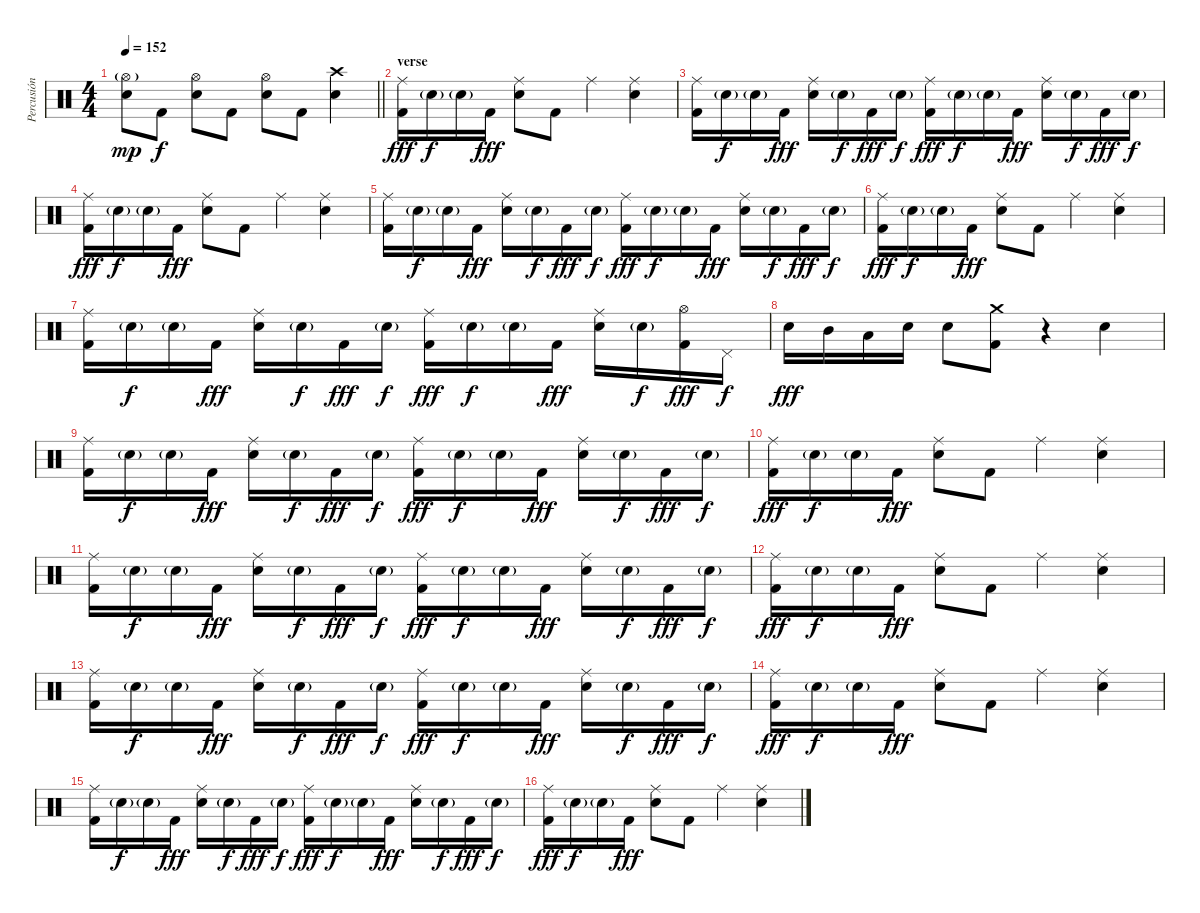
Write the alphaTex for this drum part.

\track ("Percusión" "Percusión") {instrument percussion}
\staff {score}
\articulation defaults
\ts (4 4)
\tempo 152
\clef neutral
\barLineRight lightlight
\ks c
("Hi-Hat (open)"{g} "Snare (hit) 2").8{dy mp} "Kick (hit) 2".8{dy f} ("Hi-Hat (open)" "Snare (hit) 2").8 "Kick (hit) 2".8 ("Hi-Hat (open)" "Snare (hit) 2").8 "Kick (hit) 2".8 ("Crash high (hit)" "Snare (hit) 2").4 |
\section ("" "verse")
("Ride (middle)" "Kick (hit) 2").16{dy fff} "Snare (hit) 2"{g}.16{dy f} "Snare (hit) 2"{g}.16 "Kick (hit) 2".16{dy fff} ("Ride (middle)" "Snare (hit) 2").8 "Kick (hit) 2".8 "Ride (middle)".4 ("Ride (middle)" "Snare (hit) 2").4 |
("Ride (middle)" "Kick (hit) 2").16 "Snare (hit) 2"{g}.16{dy f} "Snare (hit) 2"{g}.16 "Kick (hit) 2".16{dy fff} ("Ride (middle)" "Snare (hit) 2").16 "Snare (hit) 2"{g}.16{dy f} "Kick (hit) 2".16{dy fff} "Snare (hit) 2"{g}.16{dy f} ("Ride (middle)" "Kick (hit) 2").16{dy fff} "Snare (hit) 2"{g}.16{dy f} "Snare (hit) 2"{g}.16 "Kick (hit) 2".16{dy fff} ("Ride (middle)" "Snare (hit) 2").16 "Snare (hit) 2"{g}.16{dy f} "Kick (hit) 2".16{dy fff} "Snare (hit) 2"{g}.16{dy f} |
("Ride (middle)" "Kick (hit) 2").16{dy fff} "Snare (hit) 2"{g}.16{dy f} "Snare (hit) 2"{g}.16 "Kick (hit) 2".16{dy fff} ("Ride (middle)" "Snare (hit) 2").8 "Kick (hit) 2".8 "Ride (middle)".4 ("Ride (middle)" "Snare (hit) 2").4 |
("Ride (middle)" "Kick (hit) 2").16 "Snare (hit) 2"{g}.16{dy f} "Snare (hit) 2"{g}.16 "Kick (hit) 2".16{dy fff} ("Ride (middle)" "Snare (hit) 2").16 "Snare (hit) 2"{g}.16{dy f} "Kick (hit) 2".16{dy fff} "Snare (hit) 2"{g}.16{dy f} ("Ride (middle)" "Kick (hit) 2").16{dy fff} "Snare (hit) 2"{g}.16{dy f} "Snare (hit) 2"{g}.16 "Kick (hit) 2".16{dy fff} ("Ride (middle)" "Snare (hit) 2").16 "Snare (hit) 2"{g}.16{dy f} "Kick (hit) 2".16{dy fff} "Snare (hit) 2"{g}.16{dy f} |
("Ride (middle)" "Kick (hit) 2").16{dy fff} "Snare (hit) 2"{g}.16{dy f} "Snare (hit) 2"{g}.16 "Kick (hit) 2".16{dy fff} ("Ride (middle)" "Snare (hit) 2").8 "Kick (hit) 2".8 "Ride (middle)".4 ("Ride (middle)" "Snare (hit) 2").4 |
("Ride (middle)" "Kick (hit) 2").16 "Snare (hit) 2"{g}.16{dy f} "Snare (hit) 2"{g}.16 "Kick (hit) 2".16{dy fff} ("Ride (middle)" "Snare (hit) 2").16 "Snare (hit) 2"{g}.16{dy f} "Kick (hit) 2".16{dy fff} "Snare (hit) 2"{g}.16{dy f} ("Ride (middle)" "Kick (hit) 2").16{dy fff} "Snare (hit) 2"{g}.16{dy f} "Snare (hit) 2"{g}.16 "Kick (hit) 2".16{dy fff} ("Ride (middle)" "Snare (hit) 2").16 "Snare (hit) 2"{g}.16{dy f} ("Hi-Hat (open)" "Kick (hit) 2").16{dy fff} "Pedal Hi-Hat (hit)".16{dy f} |
"Snare (hit) 2".16{dy fff} "Mid Tom (hit)".16 "Low Tom (hit)".16 "Snare (hit) 2".16 "Snare (hit) 2".8 ("Crash medium (hit)" "Kick (hit) 2").8 r.4 "Snare (hit) 2".4 |
("Ride (middle)" "Kick (hit) 2").16 "Snare (hit) 2"{g}.16{dy f} "Snare (hit) 2"{g}.16 "Kick (hit) 2".16{dy fff} ("Ride (middle)" "Snare (hit) 2").16 "Snare (hit) 2"{g}.16{dy f} "Kick (hit) 2".16{dy fff} "Snare (hit) 2"{g}.16{dy f} ("Ride (middle)" "Kick (hit) 2").16{dy fff} "Snare (hit) 2"{g}.16{dy f} "Snare (hit) 2"{g}.16 "Kick (hit) 2".16{dy fff} ("Ride (middle)" "Snare (hit) 2").16 "Snare (hit) 2"{g}.16{dy f} "Kick (hit) 2".16{dy fff} "Snare (hit) 2"{g}.16{dy f} |
("Ride (middle)" "Kick (hit) 2").16{dy fff} "Snare (hit) 2"{g}.16{dy f} "Snare (hit) 2"{g}.16 "Kick (hit) 2".16{dy fff} ("Ride (middle)" "Snare (hit) 2").8 "Kick (hit) 2".8 "Ride (middle)".4 ("Ride (middle)" "Snare (hit) 2").4 |
("Ride (middle)" "Kick (hit) 2").16 "Snare (hit) 2"{g}.16{dy f} "Snare (hit) 2"{g}.16 "Kick (hit) 2".16{dy fff} ("Ride (middle)" "Snare (hit) 2").16 "Snare (hit) 2"{g}.16{dy f} "Kick (hit) 2".16{dy fff} "Snare (hit) 2"{g}.16{dy f} ("Ride (middle)" "Kick (hit) 2").16{dy fff} "Snare (hit) 2"{g}.16{dy f} "Snare (hit) 2"{g}.16 "Kick (hit) 2".16{dy fff} ("Ride (middle)" "Snare (hit) 2").16 "Snare (hit) 2"{g}.16{dy f} "Kick (hit) 2".16{dy fff} "Snare (hit) 2"{g}.16{dy f} |
("Ride (middle)" "Kick (hit) 2").16{dy fff} "Snare (hit) 2"{g}.16{dy f} "Snare (hit) 2"{g}.16 "Kick (hit) 2".16{dy fff} ("Ride (middle)" "Snare (hit) 2").8 "Kick (hit) 2".8 "Ride (middle)".4 ("Ride (middle)" "Snare (hit) 2").4 |
("Ride (middle)" "Kick (hit) 2").16 "Snare (hit) 2"{g}.16{dy f} "Snare (hit) 2"{g}.16 "Kick (hit) 2".16{dy fff} ("Ride (middle)" "Snare (hit) 2").16 "Snare (hit) 2"{g}.16{dy f} "Kick (hit) 2".16{dy fff} "Snare (hit) 2"{g}.16{dy f} ("Ride (middle)" "Kick (hit) 2").16{dy fff} "Snare (hit) 2"{g}.16{dy f} "Snare (hit) 2"{g}.16 "Kick (hit) 2".16{dy fff} ("Ride (middle)" "Snare (hit) 2").16 "Snare (hit) 2"{g}.16{dy f} "Kick (hit) 2".16{dy fff} "Snare (hit) 2"{g}.16{dy f} |
("Ride (middle)" "Kick (hit) 2").16{dy fff} "Snare (hit) 2"{g}.16{dy f} "Snare (hit) 2"{g}.16 "Kick (hit) 2".16{dy fff} ("Ride (middle)" "Snare (hit) 2").8 "Kick (hit) 2".8 "Ride (middle)".4 ("Ride (middle)" "Snare (hit) 2").4 |
("Ride (middle)" "Kick (hit) 2").16 "Snare (hit) 2"{g}.16{dy f} "Snare (hit) 2"{g}.16 "Kick (hit) 2".16{dy fff} ("Ride (middle)" "Snare (hit) 2").16 "Snare (hit) 2"{g}.16{dy f} "Kick (hit) 2".16{dy fff} "Snare (hit) 2"{g}.16{dy f} ("Ride (middle)" "Kick (hit) 2").16{dy fff} "Snare (hit) 2"{g}.16{dy f} "Snare (hit) 2"{g}.16 "Kick (hit) 2".16{dy fff} ("Ride (middle)" "Snare (hit) 2").16 "Snare (hit) 2"{g}.16{dy f} "Kick (hit) 2".16{dy fff} "Snare (hit) 2"{g}.16{dy f} |
("Ride (middle)" "Kick (hit) 2").16{dy fff} "Snare (hit) 2"{g}.16{dy f} "Snare (hit) 2"{g}.16 "Kick (hit) 2".16{dy fff} ("Ride (middle)" "Snare (hit) 2").8 "Kick (hit) 2".8 "Ride (middle)".4 ("Ride (middle)" "Snare (hit) 2").4
